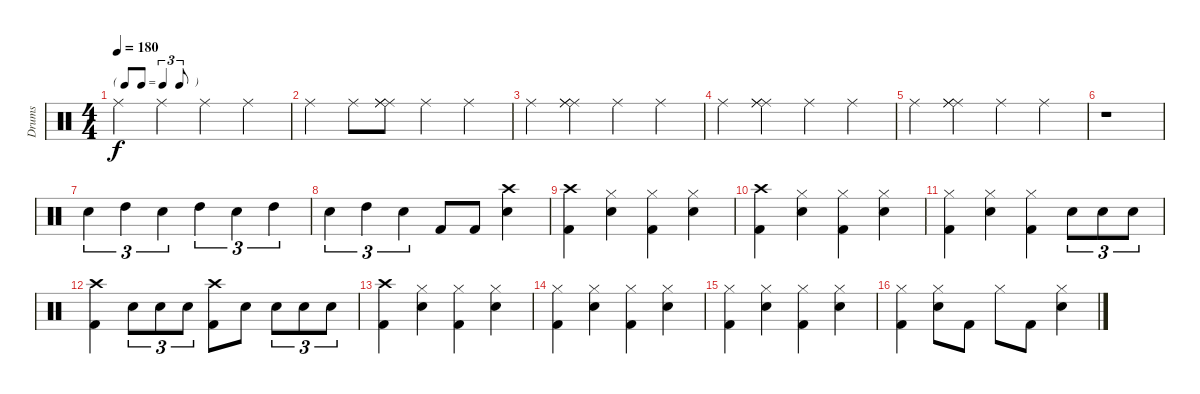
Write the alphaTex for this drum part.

\track ("Drums" "Drums") {instrument percussion}
\staff {score}
\articulation defaults
\ts (4 4)
\tf triplet8th
\tempo 180
\clef neutral
\ks c "Ride (middle)".4{dy f} "Ride (middle)".4 "Ride (middle)".4 "Ride (middle)".4
|
"Ride (middle)".4 "Ride (middle)".8 ("Ride (middle)" "Ride (middle)" "Ride (middle)").8 "Ride (middle)".4 "Ride (middle)".4 |
"Ride (middle)".4 ("Ride (middle)" "Ride (middle)" "Ride (middle)").4 "Ride (middle)".4 "Ride (middle)".4 |
"Ride (middle)".4 ("Ride (middle)" "Ride (middle)" "Ride (middle)").4 "Ride (middle)".4 "Ride (middle)".4 |
"Ride (middle)".4 ("Ride (middle)" "Ride (middle)" "Ride (middle)").4 "Ride (middle)".4 "Ride (middle)".4 |
r.1 |
"Snare (hit) 2".4{tu (3 2)} "High Tom (hit)".4{tu (3 2)} "Snare (hit) 2".4{tu (3 2)} "High Tom (hit)".4{tu (3 2)} "Snare (hit) 2".4{tu (3 2)} "High Tom (hit)".4{tu (3 2)} |
"Snare (hit) 2".4{tu (3 2)} "High Tom (hit)".4{tu (3 2)} "Snare (hit) 2".4{tu (3 2)} "Kick (hit) 2".8 "Kick (hit) 2".8 ("Crash high (hit)" "Snare (hit) 2").4 |
("Crash high (hit)" "Kick (hit) 2").4 ("Hi-Hat (closed)" "Snare (hit) 2").4 ("Hi-Hat (closed)" "Kick (hit) 2").4 ("Hi-Hat (closed)" "Snare (hit) 2").4 |
("Crash high (hit)" "Kick (hit) 2").4 ("Hi-Hat (closed)" "Snare (hit) 2").4 ("Hi-Hat (closed)" "Kick (hit) 2").4 ("Hi-Hat (closed)" "Snare (hit) 2").4 |
("Hi-Hat (closed)" "Kick (hit) 2").4 ("Hi-Hat (closed)" "Snare (hit) 2").4 ("Hi-Hat (closed)" "Kick (hit) 2").4 "Snare (hit) 2".8{tu (3 2)} "Snare (hit) 2".8{tu (3 2)} "Snare (hit) 2".8{tu (3 2)} |
("Crash high (hit)" "Kick (hit) 2").4 "Snare (hit) 2".8{tu (3 2)} "Snare (hit) 2".8{tu (3 2)} "Snare (hit) 2".8{tu (3 2)} ("Crash high (hit)" "Kick (hit) 2").8 "Snare (hit) 2".8 "Snare (hit) 2".8{tu (3 2)} "Snare (hit) 2".8{tu (3 2)} "Snare (hit) 2".8{tu (3 2)} |
("Crash high (hit)" "Kick (hit) 2").4 ("Hi-Hat (closed)" "Snare (hit) 2").4 ("Hi-Hat (closed)" "Kick (hit) 2").4 ("Hi-Hat (closed)" "Snare (hit) 2").4 |
("Hi-Hat (closed)" "Kick (hit) 2").4 ("Hi-Hat (closed)" "Snare (hit) 2").4 ("Hi-Hat (closed)" "Kick (hit) 2").4 ("Hi-Hat (closed)" "Snare (hit) 2").4 |
("Hi-Hat (closed)" "Kick (hit) 2").4 ("Hi-Hat (closed)" "Snare (hit) 2").4 ("Hi-Hat (closed)" "Kick (hit) 2").4 ("Hi-Hat (closed)" "Snare (hit) 2").4 |
("Hi-Hat (closed)" "Kick (hit) 2").4 ("Hi-Hat (closed)" "Snare (hit) 2").8 "Kick (hit) 2".8 "Hi-Hat (closed)".8 "Kick (hit) 2".8 ("Hi-Hat (closed)" "Snare (hit) 2").4
